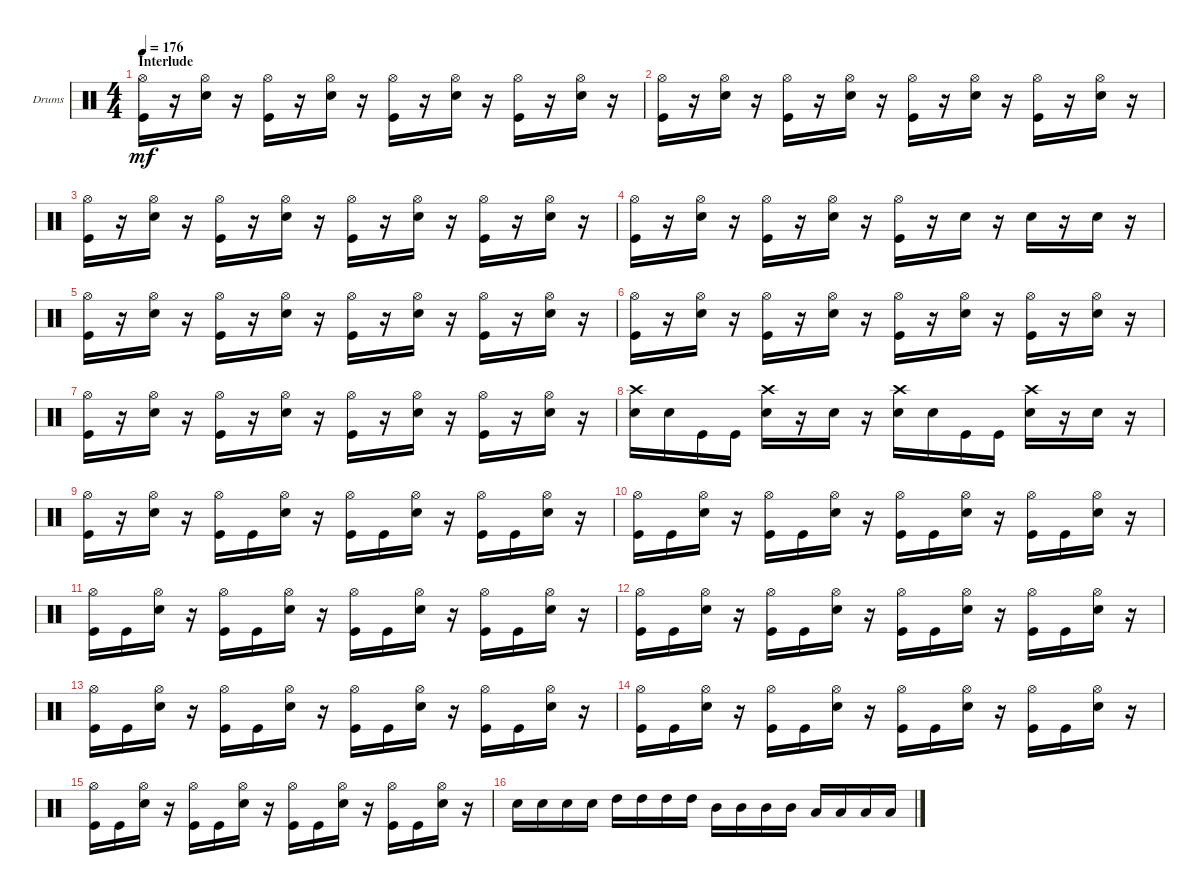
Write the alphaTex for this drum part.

\bracketExtendMode groupsimilarinstruments
\firstSystemTrackNameOrientation horizontal
\otherSystemsTrackNameOrientation horizontal
\track ("Drums" "Drums") {instrument percussion}
\staff {score}
\articulation defaults
\ts (4 4)
\section ("" "Interlude")
\tempo 176
\clef neutral
\ks c
("Kick (hit)" "Hi-Hat (open)").16{dy mf} r.16 ("Hi-Hat (open)" "Snare (hit) 2").16 r.16 ("Hi-Hat (open)" "Kick (hit)").16 r.16 ("Hi-Hat (open)" "Snare (hit) 2").16 r.16 ("Hi-Hat (open)" "Kick (hit)").16 r.16 ("Hi-Hat (open)" "Snare (hit) 2").16 r.16 ("Hi-Hat (open)" "Kick (hit)").16 r.16 ("Hi-Hat (open)" "Snare (hit) 2").16 r.16 |
("Kick (hit)" "Hi-Hat (open)").16 r.16 ("Hi-Hat (open)" "Snare (hit) 2").16 r.16 ("Hi-Hat (open)" "Kick (hit)").16 r.16 ("Hi-Hat (open)" "Snare (hit) 2").16 r.16 ("Hi-Hat (open)" "Kick (hit)").16 r.16 ("Hi-Hat (open)" "Snare (hit) 2").16 r.16 ("Hi-Hat (open)" "Kick (hit)").16 r.16 ("Hi-Hat (open)" "Snare (hit) 2").16 r.16 |
("Kick (hit)" "Hi-Hat (open)").16 r.16 ("Hi-Hat (open)" "Snare (hit) 2").16 r.16 ("Hi-Hat (open)" "Kick (hit)").16 r.16 ("Hi-Hat (open)" "Snare (hit) 2").16 r.16 ("Hi-Hat (open)" "Kick (hit)").16 r.16 ("Hi-Hat (open)" "Snare (hit) 2").16 r.16 ("Hi-Hat (open)" "Kick (hit)").16 r.16 ("Hi-Hat (open)" "Snare (hit) 2").16 r.16 |
("Kick (hit)" "Hi-Hat (open)").16 r.16 ("Hi-Hat (open)" "Snare (hit) 2").16 r.16 ("Hi-Hat (open)" "Kick (hit)").16 r.16 ("Hi-Hat (open)" "Snare (hit) 2").16 r.16 ("Hi-Hat (open)" "Kick (hit)").16 r.16 "Snare (hit) 2".16 r.16 "Snare (hit) 2".16 r.16 "Snare (hit) 2".16 r.16 |
("Kick (hit)" "Hi-Hat (open)").16 r.16 ("Hi-Hat (open)" "Snare (hit) 2").16 r.16 ("Hi-Hat (open)" "Kick (hit)").16 r.16 ("Hi-Hat (open)" "Snare (hit) 2").16 r.16 ("Hi-Hat (open)" "Kick (hit)").16 r.16 ("Hi-Hat (open)" "Snare (hit) 2").16 r.16 ("Hi-Hat (open)" "Kick (hit)").16 r.16 ("Hi-Hat (open)" "Snare (hit) 2").16 r.16 |
("Kick (hit)" "Hi-Hat (open)").16 r.16 ("Hi-Hat (open)" "Snare (hit) 2").16 r.16 ("Hi-Hat (open)" "Kick (hit)").16 r.16 ("Hi-Hat (open)" "Snare (hit) 2").16 r.16 ("Hi-Hat (open)" "Kick (hit)").16 r.16 ("Hi-Hat (open)" "Snare (hit) 2").16 r.16 ("Hi-Hat (open)" "Kick (hit)").16 r.16 ("Hi-Hat (open)" "Snare (hit) 2").16 r.16 |
("Kick (hit)" "Hi-Hat (open)").16 r.16 ("Hi-Hat (open)" "Snare (hit) 2").16 r.16 ("Hi-Hat (open)" "Kick (hit)").16 r.16 ("Hi-Hat (open)" "Snare (hit) 2").16 r.16 ("Hi-Hat (open)" "Kick (hit)").16 r.16 ("Hi-Hat (open)" "Snare (hit) 2").16 r.16 ("Hi-Hat (open)" "Kick (hit)").16 r.16 ("Hi-Hat (open)" "Snare (hit) 2").16 r.16 |
("Snare (hit) 2" "Crash high (hit)").16 "Snare (hit) 2".16 "Kick (hit)".16 "Kick (hit)".16 ("Snare (hit) 2" "Crash high (hit)").16 r.16 "Snare (hit) 2".16 r.16 ("Snare (hit) 2" "Crash high (hit)").16 "Snare (hit) 2".16 "Kick (hit)".16 "Kick (hit)".16 ("Snare (hit) 2" "Crash high (hit)").16 r.16 "Snare (hit) 2".16 r.16 |
("Kick (hit)" "Hi-Hat (open)").16 r.16 ("Hi-Hat (open)" "Snare (hit) 2").16 r.16 ("Hi-Hat (open)" "Kick (hit)").16 "Kick (hit)".16 ("Hi-Hat (open)" "Snare (hit) 2").16 r.16 ("Hi-Hat (open)" "Kick (hit)").16 "Kick (hit)".16 ("Hi-Hat (open)" "Snare (hit) 2").16 r.16 ("Hi-Hat (open)" "Kick (hit)").16 "Kick (hit)".16 ("Hi-Hat (open)" "Snare (hit) 2").16 r.16 |
("Kick (hit)" "Hi-Hat (open)").16 "Kick (hit)".16 ("Hi-Hat (open)" "Snare (hit) 2").16 r.16 ("Hi-Hat (open)" "Kick (hit)").16 "Kick (hit)".16 ("Hi-Hat (open)" "Snare (hit) 2").16 r.16 ("Hi-Hat (open)" "Kick (hit)").16 "Kick (hit)".16 ("Hi-Hat (open)" "Snare (hit) 2").16 r.16 ("Hi-Hat (open)" "Kick (hit)").16 "Kick (hit)".16 ("Hi-Hat (open)" "Snare (hit) 2").16 r.16 |
("Kick (hit)" "Hi-Hat (open)").16 "Kick (hit)".16 ("Hi-Hat (open)" "Snare (hit) 2").16 r.16 ("Hi-Hat (open)" "Kick (hit)").16 "Kick (hit)".16 ("Hi-Hat (open)" "Snare (hit) 2").16 r.16 ("Hi-Hat (open)" "Kick (hit)").16 "Kick (hit)".16 ("Hi-Hat (open)" "Snare (hit) 2").16 r.16 ("Hi-Hat (open)" "Kick (hit)").16 "Kick (hit)".16 ("Hi-Hat (open)" "Snare (hit) 2").16 r.16 |
("Kick (hit)" "Hi-Hat (open)").16 "Kick (hit)".16 ("Hi-Hat (open)" "Snare (hit) 2").16 r.16 ("Hi-Hat (open)" "Kick (hit)").16 "Kick (hit)".16 ("Hi-Hat (open)" "Snare (hit) 2").16 r.16 ("Hi-Hat (open)" "Kick (hit)").16 "Kick (hit)".16 ("Hi-Hat (open)" "Snare (hit) 2").16 r.16 ("Hi-Hat (open)" "Kick (hit)").16 "Kick (hit)".16 ("Hi-Hat (open)" "Snare (hit) 2").16 r.16 |
("Kick (hit)" "Hi-Hat (open)").16 "Kick (hit)".16 ("Hi-Hat (open)" "Snare (hit) 2").16 r.16 ("Hi-Hat (open)" "Kick (hit)").16 "Kick (hit)".16 ("Hi-Hat (open)" "Snare (hit) 2").16 r.16 ("Hi-Hat (open)" "Kick (hit)").16 "Kick (hit)".16 ("Hi-Hat (open)" "Snare (hit) 2").16 r.16 ("Hi-Hat (open)" "Kick (hit)").16 "Kick (hit)".16 ("Hi-Hat (open)" "Snare (hit) 2").16 r.16 |
("Kick (hit)" "Hi-Hat (open)").16 "Kick (hit)".16 ("Hi-Hat (open)" "Snare (hit) 2").16 r.16 ("Hi-Hat (open)" "Kick (hit)").16 "Kick (hit)".16 ("Hi-Hat (open)" "Snare (hit) 2").16 r.16 ("Hi-Hat (open)" "Kick (hit)").16 "Kick (hit)".16 ("Hi-Hat (open)" "Snare (hit) 2").16 r.16 ("Hi-Hat (open)" "Kick (hit)").16 "Kick (hit)".16 ("Hi-Hat (open)" "Snare (hit) 2").16 r.16 |
("Kick (hit)" "Hi-Hat (open)").16 "Kick (hit)".16 ("Hi-Hat (open)" "Snare (hit) 2").16 r.16 ("Hi-Hat (open)" "Kick (hit)").16 "Kick (hit)".16 ("Hi-Hat (open)" "Snare (hit) 2").16 r.16 ("Hi-Hat (open)" "Kick (hit)").16 "Kick (hit)".16 ("Hi-Hat (open)" "Snare (hit) 2").16 r.16 ("Hi-Hat (open)" "Kick (hit)").16 "Kick (hit)".16 ("Hi-Hat (open)" "Snare (hit) 2").16 r.16 |
"Snare (hit) 2".16 "Snare (hit) 2".16 "Snare (hit) 2".16 "Snare (hit) 2".16 "High Tom (hit)".16 "High Tom (hit)".16 "High Tom (hit)".16 "High Tom (hit)".16 "Mid Tom (hit)".16 "Mid Tom (hit)".16 "Mid Tom (hit)".16 "Mid Tom (hit)".16 "Low Tom (hit)".16 "Low Tom (hit)".16 "Low Tom (hit)".16 "Low Tom (hit)".16
